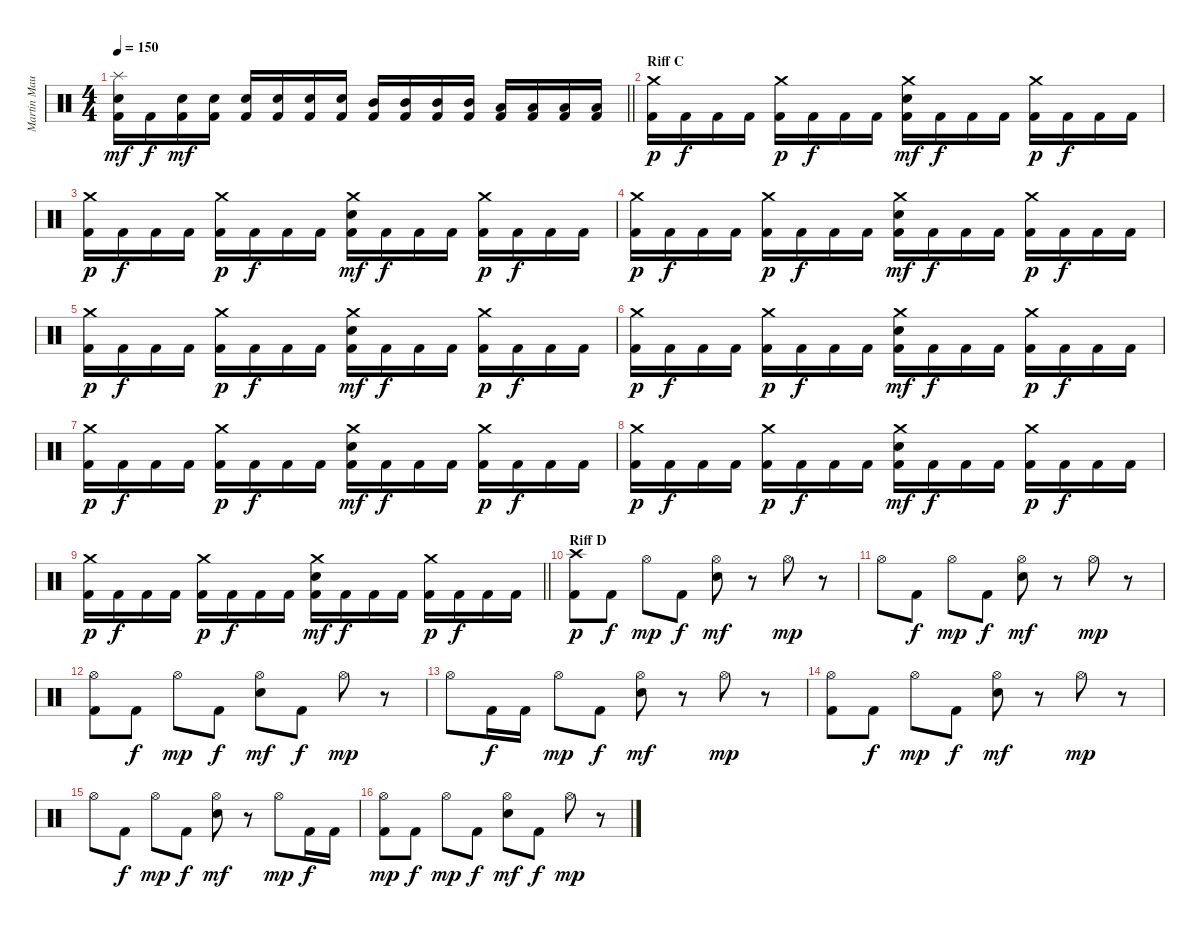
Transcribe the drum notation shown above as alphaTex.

\track ("Martin Maurais" "Martin Mau") {instrument percussion}
\staff {score}
\articulation defaults
\ts (4 4)
\tempo 150
\clef neutral
\barLineRight lightlight
\ks c
("Splash (hit)" "Electric Snare (hit)" "Kick (hit) 2").16{dy mf} "Kick (hit) 2".16{dy f} ("Electric Snare (hit)" "Kick (hit) 2").16{dy mf} ("Electric Snare (hit)" "Kick (hit) 2").16 ("Electric Snare (hit)" "Kick (hit) 2").16 ("Electric Snare (hit)" "Kick (hit) 2").16 ("Electric Snare (hit)" "Kick (hit) 2").16 ("Electric Snare (hit)" "Kick (hit) 2").16 ("Mid Tom (hit)" "Kick (hit) 2").16 ("Mid Tom (hit)" "Kick (hit) 2").16 ("Mid Tom (hit)" "Kick (hit) 2").16 ("Mid Tom (hit)" "Kick (hit) 2").16 ("Low Tom (hit)" "Kick (hit) 2").16 ("Low Tom (hit)" "Kick (hit) 2").16 ("Low Tom (hit)" "Kick (hit) 2").16 ("Low Tom (hit)" "Kick (hit) 2").16 |
\section ("" "Riff C")
("Crash medium (hit)" "Kick (hit) 2").16{dy p} "Kick (hit) 2".16{dy f} "Kick (hit) 2".16 "Kick (hit) 2".16 ("Crash medium (hit)" "Kick (hit) 2").16{dy p} "Kick (hit) 2".16{dy f} "Kick (hit) 2".16 "Kick (hit) 2".16 ("Crash medium (hit)" "Electric Snare (hit)" "Kick (hit) 2").16{dy mf} "Kick (hit) 2".16{dy f} "Kick (hit) 2".16 "Kick (hit) 2".16 ("Crash medium (hit)" "Kick (hit) 2").16{dy p} "Kick (hit) 2".16{dy f} "Kick (hit) 2".16 "Kick (hit) 2".16 |
("Crash medium (hit)" "Kick (hit) 2").16{dy p} "Kick (hit) 2".16{dy f} "Kick (hit) 2".16 "Kick (hit) 2".16 ("Crash medium (hit)" "Kick (hit) 2").16{dy p} "Kick (hit) 2".16{dy f} "Kick (hit) 2".16 "Kick (hit) 2".16 ("Crash medium (hit)" "Electric Snare (hit)" "Kick (hit) 2").16{dy mf} "Kick (hit) 2".16{dy f} "Kick (hit) 2".16 "Kick (hit) 2".16 ("Crash medium (hit)" "Kick (hit) 2").16{dy p} "Kick (hit) 2".16{dy f} "Kick (hit) 2".16 "Kick (hit) 2".16 |
("Crash medium (hit)" "Kick (hit) 2").16{dy p} "Kick (hit) 2".16{dy f} "Kick (hit) 2".16 "Kick (hit) 2".16 ("Crash medium (hit)" "Kick (hit) 2").16{dy p} "Kick (hit) 2".16{dy f} "Kick (hit) 2".16 "Kick (hit) 2".16 ("Crash medium (hit)" "Electric Snare (hit)" "Kick (hit) 2").16{dy mf} "Kick (hit) 2".16{dy f} "Kick (hit) 2".16 "Kick (hit) 2".16 ("Crash medium (hit)" "Kick (hit) 2").16{dy p} "Kick (hit) 2".16{dy f} "Kick (hit) 2".16 "Kick (hit) 2".16 |
("Crash medium (hit)" "Kick (hit) 2").16{dy p} "Kick (hit) 2".16{dy f} "Kick (hit) 2".16 "Kick (hit) 2".16 ("Crash medium (hit)" "Kick (hit) 2").16{dy p} "Kick (hit) 2".16{dy f} "Kick (hit) 2".16 "Kick (hit) 2".16 ("Crash medium (hit)" "Electric Snare (hit)" "Kick (hit) 2").16{dy mf} "Kick (hit) 2".16{dy f} "Kick (hit) 2".16 "Kick (hit) 2".16 ("Crash medium (hit)" "Kick (hit) 2").16{dy p} "Kick (hit) 2".16{dy f} "Kick (hit) 2".16 "Kick (hit) 2".16 |
("Crash medium (hit)" "Kick (hit) 2").16{dy p} "Kick (hit) 2".16{dy f} "Kick (hit) 2".16 "Kick (hit) 2".16 ("Crash medium (hit)" "Kick (hit) 2").16{dy p} "Kick (hit) 2".16{dy f} "Kick (hit) 2".16 "Kick (hit) 2".16 ("Crash medium (hit)" "Electric Snare (hit)" "Kick (hit) 2").16{dy mf} "Kick (hit) 2".16{dy f} "Kick (hit) 2".16 "Kick (hit) 2".16 ("Crash medium (hit)" "Kick (hit) 2").16{dy p} "Kick (hit) 2".16{dy f} "Kick (hit) 2".16 "Kick (hit) 2".16 |
("Crash medium (hit)" "Kick (hit) 2").16{dy p} "Kick (hit) 2".16{dy f} "Kick (hit) 2".16 "Kick (hit) 2".16 ("Crash medium (hit)" "Kick (hit) 2").16{dy p} "Kick (hit) 2".16{dy f} "Kick (hit) 2".16 "Kick (hit) 2".16 ("Crash medium (hit)" "Electric Snare (hit)" "Kick (hit) 2").16{dy mf} "Kick (hit) 2".16{dy f} "Kick (hit) 2".16 "Kick (hit) 2".16 ("Crash medium (hit)" "Kick (hit) 2").16{dy p} "Kick (hit) 2".16{dy f} "Kick (hit) 2".16 "Kick (hit) 2".16 |
("Crash medium (hit)" "Kick (hit) 2").16{dy p} "Kick (hit) 2".16{dy f} "Kick (hit) 2".16 "Kick (hit) 2".16 ("Crash medium (hit)" "Kick (hit) 2").16{dy p} "Kick (hit) 2".16{dy f} "Kick (hit) 2".16 "Kick (hit) 2".16 ("Crash medium (hit)" "Electric Snare (hit)" "Kick (hit) 2").16{dy mf} "Kick (hit) 2".16{dy f} "Kick (hit) 2".16 "Kick (hit) 2".16 ("Crash medium (hit)" "Kick (hit) 2").16{dy p} "Kick (hit) 2".16{dy f} "Kick (hit) 2".16 "Kick (hit) 2".16 |
\barLineRight lightlight
("Crash medium (hit)" "Kick (hit) 2").16{dy p} "Kick (hit) 2".16{dy f} "Kick (hit) 2".16 "Kick (hit) 2".16 ("Crash medium (hit)" "Kick (hit) 2").16{dy p} "Kick (hit) 2".16{dy f} "Kick (hit) 2".16 "Kick (hit) 2".16 ("Crash medium (hit)" "Electric Snare (hit)" "Kick (hit) 2").16{dy mf} "Kick (hit) 2".16{dy f} "Kick (hit) 2".16 "Kick (hit) 2".16 ("Crash medium (hit)" "Kick (hit) 2").16{dy p} "Kick (hit) 2".16{dy f} "Kick (hit) 2".16 "Kick (hit) 2".16 |
\section ("" "Riff D")
("Crash high (hit)" "Kick (hit) 2").8{dy p} "Kick (hit) 2".8{dy f} "Hi-Hat (open)".8{dy mp} "Kick (hit) 2".8{dy f} ("Hi-Hat (open)" "Electric Snare (hit)").8{dy mf} r.8 "Hi-Hat (open)".8{dy mp} r.8 |
"Hi-Hat (open)".8 "Kick (hit) 2".8{dy f} "Hi-Hat (open)".8{dy mp} "Kick (hit) 2".8{dy f} ("Hi-Hat (open)" "Electric Snare (hit)").8{dy mf} r.8 "Hi-Hat (open)".8{dy mp} r.8 |
("Hi-Hat (open)" "Kick (hit) 2").8 "Kick (hit) 2".8{dy f} "Hi-Hat (open)".8{dy mp} "Kick (hit) 2".8{dy f} ("Hi-Hat (open)" "Electric Snare (hit)").8{dy mf} "Kick (hit) 2".8{dy f} "Hi-Hat (open)".8{dy mp} r.8 |
"Hi-Hat (open)".8 "Kick (hit) 2".16{dy f} "Kick (hit) 2".16 "Hi-Hat (open)".8{dy mp} "Kick (hit) 2".8{dy f} ("Hi-Hat (open)" "Electric Snare (hit)").8{dy mf} r.8 "Hi-Hat (open)".8{dy mp} r.8 |
("Hi-Hat (open)" "Kick (hit) 2").8 "Kick (hit) 2".8{dy f} "Hi-Hat (open)".8{dy mp} "Kick (hit) 2".8{dy f} ("Hi-Hat (open)" "Electric Snare (hit)").8{dy mf} r.8 "Hi-Hat (open)".8{dy mp} r.8 |
"Hi-Hat (open)".8 "Kick (hit) 2".8{dy f} "Hi-Hat (open)".8{dy mp} "Kick (hit) 2".8{dy f} ("Hi-Hat (open)" "Electric Snare (hit)").8{dy mf} r.8 "Hi-Hat (open)".8{dy mp} "Kick (hit) 2".16{dy f} "Kick (hit) 2".16 |
("Hi-Hat (open)" "Kick (hit) 2").8{dy mp} "Kick (hit) 2".8{dy f} "Hi-Hat (open)".8{dy mp} "Kick (hit) 2".8{dy f} ("Hi-Hat (open)" "Electric Snare (hit)").8{dy mf} "Kick (hit) 2".8{dy f} "Hi-Hat (open)".8{dy mp} r.8
